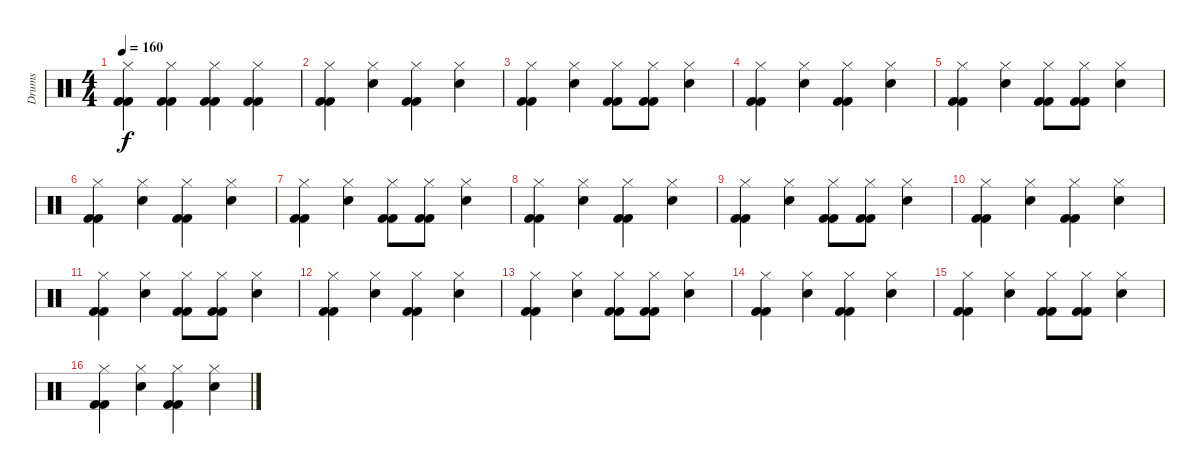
\track ("Drums" "Drums") {instrument percussion}
\staff {score}
\articulation defaults
\ts (4 4)
\tempo 160
\clef neutral
\ks c
("Hi-Hat (closed)" "Kick (hit) 2" "Kick (hit) 2").4{dy f} ("Hi-Hat (closed)" "Kick (hit) 2" "Kick (hit) 2").4 ("Hi-Hat (closed)" "Kick (hit) 2" "Kick (hit) 2").4 ("Hi-Hat (closed)" "Kick (hit) 2" "Kick (hit) 2").4 |
("Hi-Hat (closed)" "Kick (hit) 2" "Kick (hit) 2").4 ("Hi-Hat (closed)" "Snare (hit) 2").4 ("Hi-Hat (closed)" "Kick (hit) 2" "Kick (hit) 2").4 ("Hi-Hat (closed)" "Snare (hit) 2").4 |
("Hi-Hat (closed)" "Kick (hit) 2" "Kick (hit) 2").4 ("Hi-Hat (closed)" "Snare (hit) 2").4 ("Hi-Hat (closed)" "Kick (hit) 2" "Kick (hit) 2").8 ("Hi-Hat (closed)" "Kick (hit) 2" "Kick (hit) 2").8 ("Hi-Hat (closed)" "Snare (hit) 2").4 |
("Hi-Hat (closed)" "Kick (hit) 2" "Kick (hit) 2").4 ("Hi-Hat (closed)" "Snare (hit) 2").4 ("Hi-Hat (closed)" "Kick (hit) 2" "Kick (hit) 2").4 ("Hi-Hat (closed)" "Snare (hit) 2").4 |
("Hi-Hat (closed)" "Kick (hit) 2" "Kick (hit) 2").4 ("Hi-Hat (closed)" "Snare (hit) 2").4 ("Hi-Hat (closed)" "Kick (hit) 2" "Kick (hit) 2").8 ("Hi-Hat (closed)" "Kick (hit) 2" "Kick (hit) 2").8 ("Hi-Hat (closed)" "Snare (hit) 2").4 |
("Hi-Hat (closed)" "Kick (hit) 2" "Kick (hit) 2").4 ("Hi-Hat (closed)" "Snare (hit) 2").4 ("Hi-Hat (closed)" "Kick (hit) 2" "Kick (hit) 2").4 ("Hi-Hat (closed)" "Snare (hit) 2").4 |
("Hi-Hat (closed)" "Kick (hit) 2" "Kick (hit) 2").4 ("Hi-Hat (closed)" "Snare (hit) 2").4 ("Hi-Hat (closed)" "Kick (hit) 2" "Kick (hit) 2").8 ("Hi-Hat (closed)" "Kick (hit) 2" "Kick (hit) 2").8 ("Hi-Hat (closed)" "Snare (hit) 2").4 |
("Hi-Hat (closed)" "Kick (hit) 2" "Kick (hit) 2").4 ("Hi-Hat (closed)" "Snare (hit) 2").4 ("Hi-Hat (closed)" "Kick (hit) 2" "Kick (hit) 2").4 ("Hi-Hat (closed)" "Snare (hit) 2").4 |
("Hi-Hat (closed)" "Kick (hit) 2" "Kick (hit) 2").4 ("Hi-Hat (closed)" "Snare (hit) 2").4 ("Hi-Hat (closed)" "Kick (hit) 2" "Kick (hit) 2").8 ("Hi-Hat (closed)" "Kick (hit) 2" "Kick (hit) 2").8 ("Hi-Hat (closed)" "Snare (hit) 2").4 |
("Hi-Hat (closed)" "Kick (hit) 2" "Kick (hit) 2").4 ("Hi-Hat (closed)" "Snare (hit) 2").4 ("Hi-Hat (closed)" "Kick (hit) 2" "Kick (hit) 2").4 ("Hi-Hat (closed)" "Snare (hit) 2").4 |
("Hi-Hat (closed)" "Kick (hit) 2" "Kick (hit) 2").4 ("Hi-Hat (closed)" "Snare (hit) 2").4 ("Hi-Hat (closed)" "Kick (hit) 2" "Kick (hit) 2").8 ("Hi-Hat (closed)" "Kick (hit) 2" "Kick (hit) 2").8 ("Hi-Hat (closed)" "Snare (hit) 2").4 |
("Hi-Hat (closed)" "Kick (hit) 2" "Kick (hit) 2").4 ("Hi-Hat (closed)" "Snare (hit) 2").4 ("Hi-Hat (closed)" "Kick (hit) 2" "Kick (hit) 2").4 ("Hi-Hat (closed)" "Snare (hit) 2").4 |
("Hi-Hat (closed)" "Kick (hit) 2" "Kick (hit) 2").4 ("Hi-Hat (closed)" "Snare (hit) 2").4 ("Hi-Hat (closed)" "Kick (hit) 2" "Kick (hit) 2").8 ("Hi-Hat (closed)" "Kick (hit) 2" "Kick (hit) 2").8 ("Hi-Hat (closed)" "Snare (hit) 2").4 |
("Hi-Hat (closed)" "Kick (hit) 2" "Kick (hit) 2").4 ("Hi-Hat (closed)" "Snare (hit) 2").4 ("Hi-Hat (closed)" "Kick (hit) 2" "Kick (hit) 2").4 ("Hi-Hat (closed)" "Snare (hit) 2").4 |
("Hi-Hat (closed)" "Kick (hit) 2" "Kick (hit) 2").4 ("Hi-Hat (closed)" "Snare (hit) 2").4 ("Hi-Hat (closed)" "Kick (hit) 2" "Kick (hit) 2").8 ("Hi-Hat (closed)" "Kick (hit) 2" "Kick (hit) 2").8 ("Hi-Hat (closed)" "Snare (hit) 2").4 |
("Hi-Hat (closed)" "Kick (hit) 2" "Kick (hit) 2").4 ("Hi-Hat (closed)" "Snare (hit) 2").4 ("Hi-Hat (closed)" "Kick (hit) 2" "Kick (hit) 2").4 ("Hi-Hat (closed)" "Snare (hit) 2").4
